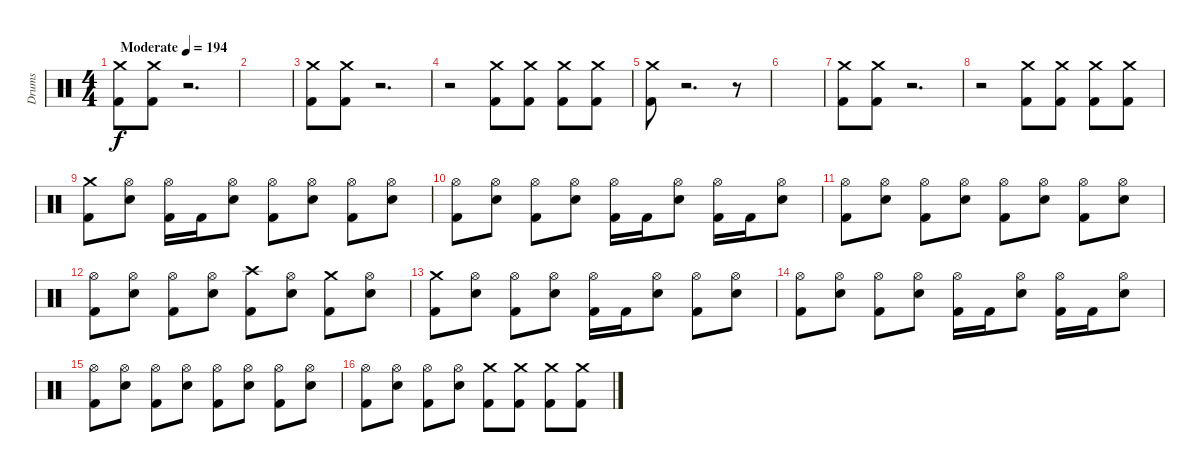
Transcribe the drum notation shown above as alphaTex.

\track ("Drums" "Drums") {instrument percussion}
\staff {score}
\articulation defaults
\ts (4 4)
\tempo (194 "Moderate")
\clef neutral
\ks c
("Crash medium (hit)" "Kick (hit) 2").8{dy f} ("Crash medium (hit)" "Kick (hit) 2").8 r.2{d volume 0} |
|
("Crash medium (hit)" "Kick (hit) 2").8{volume 16} ("Crash medium (hit)" "Kick (hit) 2").8 r.2{d volume 0} |
r.2 ("Crash medium (hit)" "Kick (hit) 2").8{volume 16} ("Crash medium (hit)" "Kick (hit) 2").8 ("Crash medium (hit)" "Kick (hit) 2").8 ("Crash medium (hit)" "Kick (hit) 2").8 |
("Crash medium (hit)" "Kick (hit) 2").8 r.2{d volume 0} r.8 |
|
("Crash medium (hit)" "Kick (hit) 2").8{volume 16} ("Crash medium (hit)" "Kick (hit) 2").8 r.2{d volume 0} |
r.2 ("Crash medium (hit)" "Kick (hit) 2").8{volume 16} ("Crash medium (hit)" "Kick (hit) 2").8 ("Crash medium (hit)" "Kick (hit) 2").8 ("Crash medium (hit)" "Kick (hit) 2").8 |
("Crash medium (hit)" "Kick (hit) 2").8 ("Hi-Hat (open)" "Electric Snare (hit)").8 ("Hi-Hat (open)" "Kick (hit) 2").16 "Kick (hit) 2".16 ("Hi-Hat (open)" "Electric Snare (hit)").8 ("Hi-Hat (open)" "Kick (hit) 2").8 ("Hi-Hat (open)" "Electric Snare (hit)").8 ("Hi-Hat (open)" "Kick (hit) 2").8 ("Hi-Hat (open)" "Electric Snare (hit)").8 |
("Hi-Hat (open)" "Kick (hit) 2").8 ("Hi-Hat (open)" "Electric Snare (hit)").8 ("Hi-Hat (open)" "Kick (hit) 2").8 ("Hi-Hat (open)" "Electric Snare (hit)").8 ("Hi-Hat (open)" "Kick (hit) 2").16 "Kick (hit) 2".16 ("Hi-Hat (open)" "Electric Snare (hit)").8 ("Hi-Hat (open)" "Kick (hit) 2").16 "Kick (hit) 2".16 ("Hi-Hat (open)" "Electric Snare (hit)").8 |
("Hi-Hat (open)" "Kick (hit) 2").8 ("Hi-Hat (open)" "Electric Snare (hit)").8 ("Hi-Hat (open)" "Kick (hit) 2").8 ("Hi-Hat (open)" "Electric Snare (hit)").8 ("Hi-Hat (open)" "Kick (hit) 2").8 ("Hi-Hat (open)" "Electric Snare (hit)").8 ("Hi-Hat (open)" "Kick (hit) 2").8 ("Hi-Hat (open)" "Electric Snare (hit)").8 |
("Hi-Hat (open)" "Kick (hit) 2").8 ("Hi-Hat (open)" "Electric Snare (hit)").8 ("Hi-Hat (open)" "Kick (hit) 2").8 ("Hi-Hat (open)" "Electric Snare (hit)").8 ("Crash high (hit)" "Kick (hit) 2").8 ("Hi-Hat (open)" "Electric Snare (hit)").8 ("Crash medium (hit)" "Kick (hit) 2").8 ("Hi-Hat (open)" "Electric Snare (hit)").8 |
("Crash medium (hit)" "Kick (hit) 2").8 ("Hi-Hat (open)" "Electric Snare (hit)").8 ("Hi-Hat (open)" "Kick (hit) 2").8 ("Hi-Hat (open)" "Electric Snare (hit)").8 ("Hi-Hat (open)" "Kick (hit) 2").16 "Kick (hit) 2".16 ("Hi-Hat (open)" "Electric Snare (hit)").8 ("Hi-Hat (open)" "Kick (hit) 2").8 ("Hi-Hat (open)" "Electric Snare (hit)").8 |
("Hi-Hat (open)" "Kick (hit) 2").8 ("Hi-Hat (open)" "Electric Snare (hit)").8 ("Hi-Hat (open)" "Kick (hit) 2").8 ("Hi-Hat (open)" "Electric Snare (hit)").8 ("Hi-Hat (open)" "Kick (hit) 2").16 "Kick (hit) 2".16 ("Hi-Hat (open)" "Electric Snare (hit)").8 ("Hi-Hat (open)" "Kick (hit) 2").16 "Kick (hit) 2".16 ("Hi-Hat (open)" "Electric Snare (hit)").8 |
("Hi-Hat (open)" "Kick (hit) 2").8 ("Hi-Hat (open)" "Electric Snare (hit)").8 ("Hi-Hat (open)" "Kick (hit) 2").8 ("Hi-Hat (open)" "Electric Snare (hit)").8 ("Hi-Hat (open)" "Kick (hit) 2").8 ("Hi-Hat (open)" "Electric Snare (hit)").8 ("Hi-Hat (open)" "Kick (hit) 2").8 ("Hi-Hat (open)" "Electric Snare (hit)").8 |
("Hi-Hat (open)" "Kick (hit) 2").8 ("Hi-Hat (open)" "Electric Snare (hit)").8 ("Hi-Hat (open)" "Kick (hit) 2").8 ("Hi-Hat (open)" "Electric Snare (hit)").8 ("Crash medium (hit)" "Kick (hit) 2").8 ("Crash medium (hit)" "Kick (hit) 2").8 ("Crash medium (hit)" "Kick (hit) 2").8 ("Crash medium (hit)" "Kick (hit) 2").8
